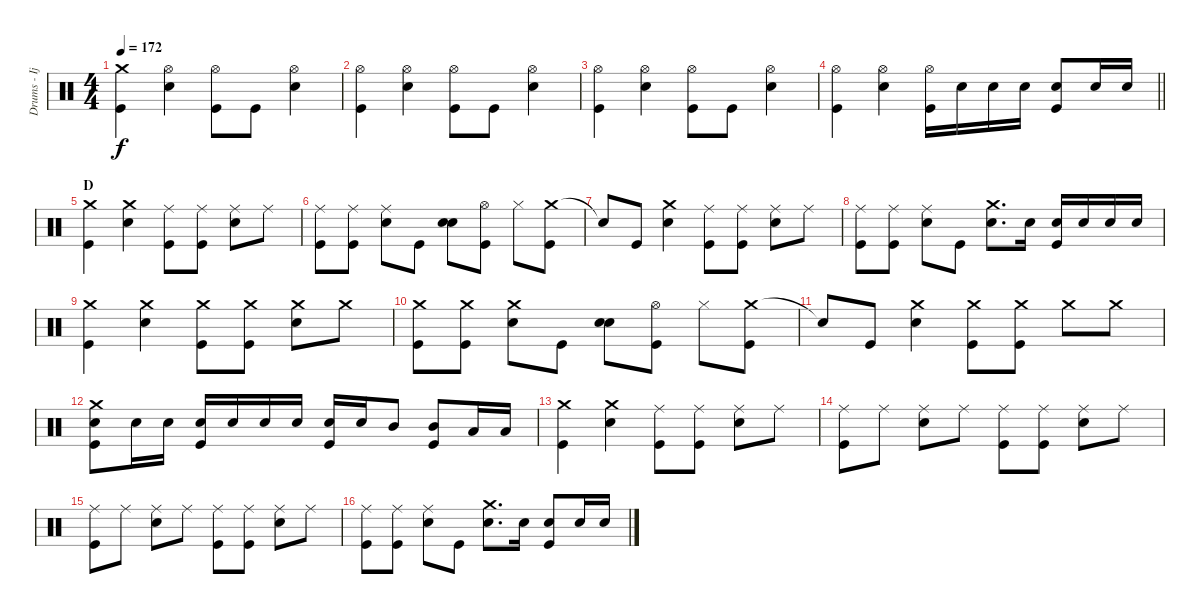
\track ("Drums - Ijichi" "Drums - Ij") {instrument percussion}
\staff {score}
\articulation defaults
\ts (4 4)
\tempo 172
\clef neutral
\ks c
("Crash medium (hit)" "Kick (hit)").4{dy f} ("Hi-Hat (open)" "Electric Snare (hit)").4 ("Hi-Hat (open)" "Kick (hit)").8 "Kick (hit)".8 ("Hi-Hat (open)" "Electric Snare (hit)").4 |
("Hi-Hat (open)" "Kick (hit)").4 ("Hi-Hat (open)" "Electric Snare (hit)").4 ("Hi-Hat (open)" "Kick (hit)").8 "Kick (hit)".8 ("Hi-Hat (open)" "Electric Snare (hit)").4 |
("Hi-Hat (open)" "Kick (hit)").4 ("Hi-Hat (open)" "Electric Snare (hit)").4 ("Hi-Hat (open)" "Kick (hit)").8 "Kick (hit)".8 ("Hi-Hat (open)" "Electric Snare (hit)").4 |
\barLineRight lightlight
("Hi-Hat (open)" "Kick (hit)").4 ("Hi-Hat (open)" "Electric Snare (hit)").4 ("Hi-Hat (open)" "Kick (hit)").16 "Electric Snare (hit)".16 "Electric Snare (hit)".16 "Electric Snare (hit)".16 ("Electric Snare (hit)" "Kick (hit)").8 "Electric Snare (hit)".16 "Electric Snare (hit)".16 |
\section ("" "D")
("Crash medium (hit)" "Kick (hit)").4 ("Crash medium (hit)" "Electric Snare (hit)").4 ("Ride (middle)" "Kick (hit)").8 ("Ride (middle)" "Kick (hit)").8 ("Ride (middle)" "Electric Snare (hit)").8 "Ride (middle)".8 |
("Ride (middle)" "Kick (hit)").8 ("Ride (middle)" "Kick (hit)").8 ("Ride (middle)" "Electric Snare (hit)").8 "Kick (hit)".8 ("Electric Snare (hit)" "Electric Snare (hit)").8 ("Hi-Hat (open)" "Kick (hit)").8 "Hi-Hat (closed)".8 ("Crash medium (hit)" "Kick (hit)").8 |
"Snare (hit)"{t}.8 "Kick (hit)".8 ("Crash medium (hit)" "Electric Snare (hit)").4 ("Ride (middle)" "Kick (hit)").8 ("Ride (middle)" "Kick (hit)").8 ("Ride (middle)" "Electric Snare (hit)").8 "Ride (middle)".8 |
("Ride (middle)" "Kick (hit)").8 ("Ride (middle)" "Kick (hit)").8 ("Ride (middle)" "Electric Snare (hit)").8 "Kick (hit)".8 ("Crash medium (hit)" "Electric Snare (hit)").8{d} "Electric Snare (hit)".16 ("Electric Snare (hit)" "Kick (hit)").16 "Electric Snare (hit)".16 "Electric Snare (hit)".16 "Electric Snare (hit)".16 |
("Crash medium (hit)" "Kick (hit)").4 ("Crash medium (hit)" "Electric Snare (hit)").4 ("Crash medium (hit)" "Kick (hit)").8 ("Crash medium (hit)" "Kick (hit)").8 ("Crash medium (hit)" "Electric Snare (hit)").8 "Crash medium (hit)".8 |
("Crash medium (hit)" "Kick (hit)").8 ("Crash medium (hit)" "Kick (hit)").8 ("Crash medium (hit)" "Electric Snare (hit)").8 "Kick (hit)".8 ("Electric Snare (hit)" "Electric Snare (hit)").8 ("Hi-Hat (open)" "Kick (hit)").8 "Hi-Hat (closed)".8 ("Crash medium (hit)" "Kick (hit)").8 |
"Snare (hit)"{t}.8 "Kick (hit)".8 ("Crash medium (hit)" "Electric Snare (hit)").4 ("Crash medium (hit)" "Kick (hit)").8 ("Crash medium (hit)" "Kick (hit)").8 "Crash medium (hit)".8 "Crash medium (hit)".8 |
("Crash medium (hit)" "Electric Snare (hit)" "Kick (hit)").8 "Electric Snare (hit)".16 "Electric Snare (hit)".16 ("Electric Snare (hit)" "Kick (hit)").16 "Electric Snare (hit)".16 "Electric Snare (hit)".16 "Electric Snare (hit)".16 ("Electric Snare (hit)" "Kick (hit)").16 "Electric Snare (hit)".16 "Mid Tom (hit)".8 ("Mid Tom (hit)" "Kick (hit)").8 "Low Tom (hit)".16 "Low Tom (hit)".16 |
("Crash medium (hit)" "Kick (hit)").4 ("Crash medium (hit)" "Electric Snare (hit)").4 ("Ride (middle)" "Kick (hit)").8 ("Ride (middle)" "Kick (hit)").8 ("Ride (middle)" "Electric Snare (hit)").8 "Ride (middle)".8 |
("Ride (middle)" "Kick (hit)").8 "Ride (middle)".8 ("Ride (middle)" "Electric Snare (hit)").8 "Ride (middle)".8 ("Ride (middle)" "Kick (hit)").8 ("Ride (middle)" "Kick (hit)").8 ("Ride (middle)" "Electric Snare (hit)").8 "Ride (middle)".8 |
("Ride (middle)" "Kick (hit)").8 "Ride (middle)".8 ("Ride (middle)" "Electric Snare (hit)").8 "Ride (middle)".8 ("Ride (middle)" "Kick (hit)").8 ("Ride (middle)" "Kick (hit)").8 ("Ride (middle)" "Electric Snare (hit)").8 "Ride (middle)".8 |
("Ride (middle)" "Kick (hit)").8 ("Ride (middle)" "Kick (hit)").8 ("Ride (middle)" "Electric Snare (hit)").8 "Kick (hit)".8 ("Crash medium (hit)" "Electric Snare (hit)").8{d} "Electric Snare (hit)".16 ("Electric Snare (hit)" "Kick (hit)").8 "Electric Snare (hit)".16 "Electric Snare (hit)".16
